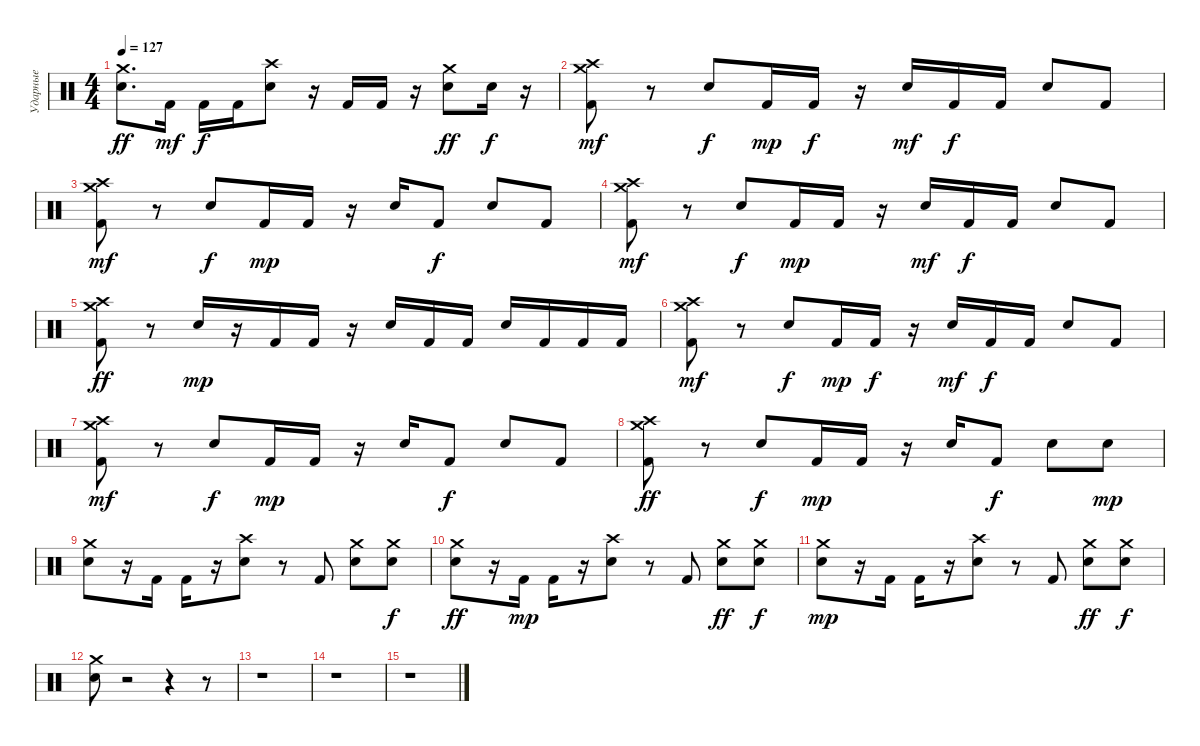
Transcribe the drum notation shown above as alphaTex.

\track ("Ударные" "Ударные") {instrument percussion}
\staff {score}
\articulation defaults
\ts (4 4)
\tempo 127
\clef neutral
\ks c
("Crash medium (hit)" "Snare (hit) 2").8{d dy ff} "Kick (hit) 2".16{dy mf} "Kick (hit) 2".16{dy f} "Kick (hit) 2".16 ("Snare (hit) 2" "Crash high (hit)").8 r.16 "Kick (hit) 2".16 "Kick (hit) 2".16 r.16 ("Crash medium (hit)" "Snare (hit) 2").8{dy ff} "Snare (hit) 2".16{dy f} r.16 |
("Kick (hit) 2" "Crash medium (hit)" "Crash high (hit)").8{dy mf} r.8 "Snare (hit) 2".8{dy f} "Kick (hit) 2".16{dy mp} "Kick (hit) 2".16{dy f} r.16 "Electric Snare (hit)".16{dy mf} "Kick (hit) 2".16{dy f} "Kick (hit) 2".16 "Snare (hit) 2".8 "Kick (hit) 2".8 |
("Kick (hit) 2" "Crash medium (hit)" "Crash high (hit)").8{dy mf} r.8 "Snare (hit) 2".8{dy f} "Kick (hit) 2".16{dy mp} "Kick (hit) 2".16 r.16 "Electric Snare (hit)".16 "Kick (hit) 2".8{dy f} "Snare (hit) 2".8 "Kick (hit) 2".8 |
("Kick (hit) 2" "Crash medium (hit)" "Crash high (hit)").8{dy mf} r.8 "Snare (hit) 2".8{dy f} "Kick (hit) 2".16{dy mp} "Kick (hit) 2".16 r.16 "Electric Snare (hit)".16{dy mf} "Kick (hit) 2".16{dy f} "Kick (hit) 2".16 "Snare (hit) 2".8 "Kick (hit) 2".8 |
("Crash high (hit)" "Crash medium (hit)" "Kick (hit) 2").8{dy ff} r.8 "Electric Snare (hit)".16{dy mp} r.16 "Kick (hit) 2".16 "Kick (hit) 2".16 r.16 "Electric Snare (hit)".16 "Kick (hit) 2".16 "Kick (hit) 2".16 "Electric Snare (hit)".16 "Kick (hit) 2".16 "Kick (hit) 2".16 "Kick (hit) 2".16 |
("Kick (hit) 2" "Crash medium (hit)" "Crash high (hit)").8{dy mf} r.8 "Snare (hit) 2".8{dy f} "Kick (hit) 2".16{dy mp} "Kick (hit) 2".16{dy f} r.16 "Electric Snare (hit)".16{dy mf} "Kick (hit) 2".16{dy f} "Kick (hit) 2".16 "Snare (hit) 2".8 "Kick (hit) 2".8 |
("Kick (hit) 2" "Crash medium (hit)" "Crash high (hit)").8{dy mf} r.8 "Snare (hit) 2".8{dy f} "Kick (hit) 2".16{dy mp} "Kick (hit) 2".16 r.16 "Electric Snare (hit)".16 "Kick (hit) 2".8{dy f} "Snare (hit) 2".8 "Kick (hit) 2".8 |
("Crash high (hit)" "Crash medium (hit)" "Kick (hit) 2").8{dy ff} r.8 "Snare (hit) 2".8{dy f} "Kick (hit) 2".16{dy mp} "Kick (hit) 2".16 r.16 "Electric Snare (hit)".16 "Kick (hit) 2".8{dy f} "Snare (hit) 2".8 "Snare (hit) 2".8{dy mp} |
("Crash medium (hit)" "Snare (hit) 2").8 r.16 "Kick (hit) 2".16 "Kick (hit) 2".16 r.16 ("Crash high (hit)" "Snare (hit) 2").8 r.8 "Kick (hit) 2".8 ("Crash medium (hit)" "Snare (hit) 2").8 ("Crash medium (hit)" "Snare (hit) 2").8{dy f} |
("Snare (hit) 2" "Crash medium (hit)").8{dy ff} r.16 "Kick (hit) 2".16{dy mp} "Kick (hit) 2".16 r.16 ("Snare (hit) 2" "Crash high (hit)").8 r.8 "Kick (hit) 2".8 ("Snare (hit) 2" "Crash medium (hit)").8{dy ff} ("Crash medium (hit)" "Snare (hit) 2").8{dy f} |
("Crash medium (hit)" "Snare (hit) 2").8{dy mp} r.16 "Kick (hit) 2".16 "Kick (hit) 2".16 r.16 ("Crash high (hit)" "Snare (hit) 2").8 r.8 "Kick (hit) 2".8 ("Snare (hit) 2" "Crash medium (hit)").8{dy ff} ("Snare (hit) 2" "Crash medium (hit)").8{dy f} |
("Snare (hit) 2" "Crash medium (hit)").8 r.2 r.4 r.8 |
r.1 |
r.1 |
r.1
